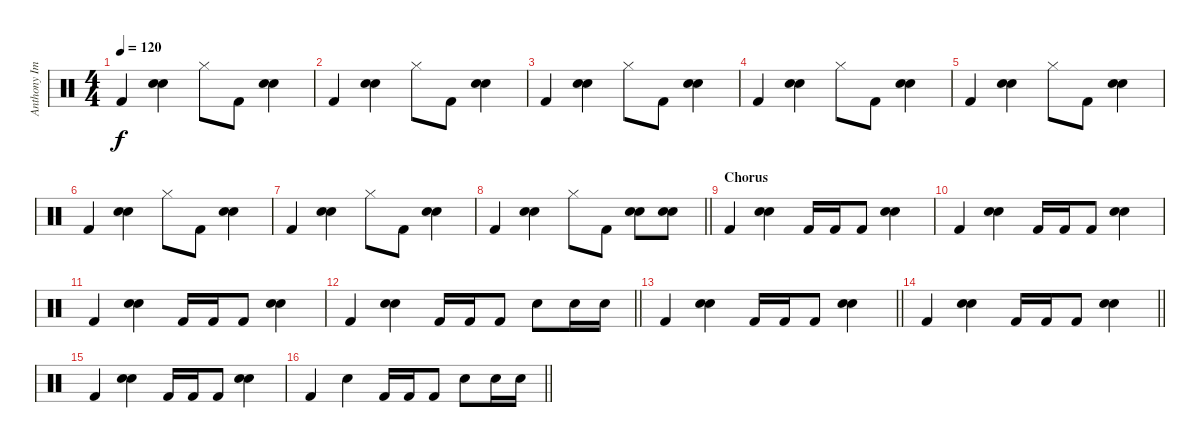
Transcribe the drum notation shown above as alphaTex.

\track ("Anthony Improgo (Percussion)" "Anthony Im") {instrument percussion}
\staff {score}
\articulation defaults
\ts (4 4)
\tempo 120
\clef neutral
\ks c "Kick (hit) 2".4{dy f}
("Snare (hit) 2" "Snare (hit) 2").4 "Hi-Hat (closed)".8 "Kick (hit) 2".8 ("Snare (hit) 2" "Snare (hit) 2").4 |
"Kick (hit) 2".4 ("Snare (hit) 2" "Snare (hit) 2").4 "Hi-Hat (closed)".8 "Kick (hit) 2".8 ("Snare (hit) 2" "Snare (hit) 2").4 |
"Kick (hit) 2".4 ("Snare (hit) 2" "Snare (hit) 2").4 "Hi-Hat (closed)".8 "Kick (hit) 2".8 ("Snare (hit) 2" "Snare (hit) 2").4 |
"Kick (hit) 2".4 ("Snare (hit) 2" "Snare (hit) 2").4 "Hi-Hat (closed)".8 "Kick (hit) 2".8 ("Snare (hit) 2" "Snare (hit) 2").4 |
"Kick (hit) 2".4 ("Snare (hit) 2" "Snare (hit) 2").4 "Hi-Hat (closed)".8 "Kick (hit) 2".8 ("Snare (hit) 2" "Snare (hit) 2").4 |
"Kick (hit) 2".4 ("Snare (hit) 2" "Snare (hit) 2").4 "Hi-Hat (closed)".8 "Kick (hit) 2".8 ("Snare (hit) 2" "Snare (hit) 2").4 |
"Kick (hit) 2".4 ("Snare (hit) 2" "Snare (hit) 2").4 "Hi-Hat (closed)".8 "Kick (hit) 2".8 ("Snare (hit) 2" "Snare (hit) 2").4 |
\barLineRight lightlight "Kick (hit) 2".4
("Snare (hit) 2" "Snare (hit) 2").4 "Hi-Hat (closed)".8 "Kick (hit) 2".8 ("Snare (hit) 2" "Snare (hit) 2").8 ("Snare (hit) 2" "Snare (hit) 2").8 |
\section ("" "Chorus")
"Kick (hit) 2".4 ("Snare (hit) 2" "Snare (hit) 2").4 "Kick (hit) 2".16 "Kick (hit) 2".16 "Kick (hit) 2".8 ("Snare (hit) 2" "Snare (hit) 2").4 |
"Kick (hit) 2".4 ("Snare (hit) 2" "Snare (hit) 2").4 "Kick (hit) 2".16 "Kick (hit) 2".16 "Kick (hit) 2".8 ("Snare (hit) 2" "Snare (hit) 2").4 |
"Kick (hit) 2".4 ("Snare (hit) 2" "Snare (hit) 2").4 "Kick (hit) 2".16 "Kick (hit) 2".16 "Kick (hit) 2".8 ("Snare (hit) 2" "Snare (hit) 2").4 |
\barLineRight lightlight "Kick (hit) 2".4
("Snare (hit) 2" "Snare (hit) 2").4 "Kick (hit) 2".16 "Kick (hit) 2".16 "Kick (hit) 2".8 "Snare (hit) 2".8 "Snare (hit) 2".16 "Snare (hit) 2".16 |
\barLineRight lightlight "Kick (hit) 2".4
("Snare (hit) 2" "Snare (hit) 2").4 "Kick (hit) 2".16 "Kick (hit) 2".16 "Kick (hit) 2".8 ("Snare (hit) 2" "Snare (hit) 2").4 |
\barLineRight lightlight "Kick (hit) 2".4
("Snare (hit) 2" "Snare (hit) 2").4 "Kick (hit) 2".16 "Kick (hit) 2".16 "Kick (hit) 2".8 ("Snare (hit) 2" "Snare (hit) 2").4 |
"Kick (hit) 2".4 ("Snare (hit) 2" "Snare (hit) 2").4 "Kick (hit) 2".16 "Kick (hit) 2".16 "Kick (hit) 2".8 ("Snare (hit) 2" "Snare (hit) 2").4 |
\barLineRight lightlight "Kick (hit) 2".4 "Snare (hit) 2".4 "Kick (hit) 2".16 "Kick (hit) 2".16 "Kick (hit) 2".8 "Snare (hit) 2".8 "Snare (hit) 2".16 "Snare (hit) 2".16
